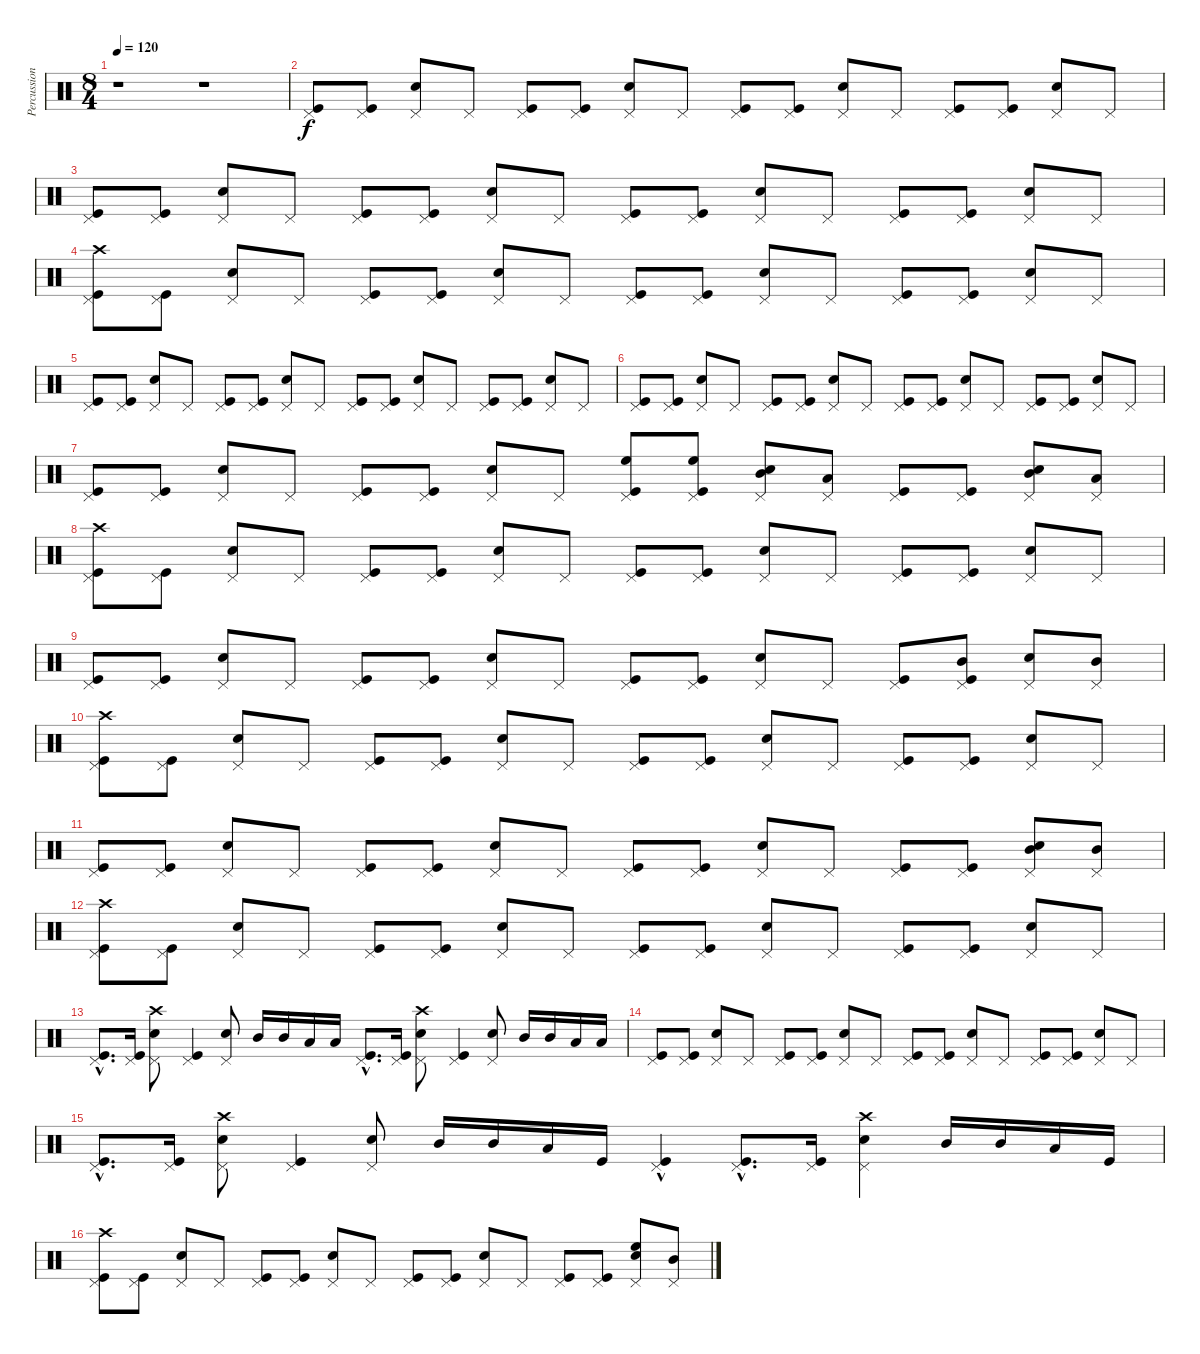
\track ("Percussion" "Percussion") {instrument percussion}
\staff {score}
\articulation defaults
\ts (8 4)
\tempo 120
\clef neutral
\ks c
r.1{dy f} r.1 |
("Kick (hit)" "Pedal Hi-Hat (hit)").8 ("Kick (hit)" "Pedal Hi-Hat (hit)").8 ("Electric Snare (hit)" "Pedal Hi-Hat (hit)").8 "Pedal Hi-Hat (hit)".8 ("Pedal Hi-Hat (hit)" "Kick (hit)").8 ("Pedal Hi-Hat (hit)" "Kick (hit)").8 ("Pedal Hi-Hat (hit)" "Electric Snare (hit)").8 "Pedal Hi-Hat (hit)".8 ("Pedal Hi-Hat (hit)" "Kick (hit)").8 ("Pedal Hi-Hat (hit)" "Kick (hit)").8 ("Pedal Hi-Hat (hit)" "Electric Snare (hit)").8 "Pedal Hi-Hat (hit)".8 ("Pedal Hi-Hat (hit)" "Kick (hit)").8 ("Pedal Hi-Hat (hit)" "Kick (hit)").8 ("Pedal Hi-Hat (hit)" "Electric Snare (hit)").8 "Pedal Hi-Hat (hit)".8 |
("Pedal Hi-Hat (hit)" "Kick (hit)").8 ("Pedal Hi-Hat (hit)" "Kick (hit)").8 ("Pedal Hi-Hat (hit)" "Electric Snare (hit)").8 "Pedal Hi-Hat (hit)".8 ("Pedal Hi-Hat (hit)" "Kick (hit)").8 ("Pedal Hi-Hat (hit)" "Kick (hit)").8 ("Pedal Hi-Hat (hit)" "Electric Snare (hit)").8 "Pedal Hi-Hat (hit)".8 ("Pedal Hi-Hat (hit)" "Kick (hit)").8 ("Pedal Hi-Hat (hit)" "Kick (hit)").8 ("Pedal Hi-Hat (hit)" "Electric Snare (hit)").8 "Pedal Hi-Hat (hit)".8 ("Pedal Hi-Hat (hit)" "Kick (hit)").8 ("Pedal Hi-Hat (hit)" "Kick (hit)").8 ("Pedal Hi-Hat (hit)" "Electric Snare (hit)").8 "Pedal Hi-Hat (hit)".8 |
("Pedal Hi-Hat (hit)" "Kick (hit)" "Crash high (hit)").8 ("Pedal Hi-Hat (hit)" "Kick (hit)").8 ("Pedal Hi-Hat (hit)" "Electric Snare (hit)").8 "Pedal Hi-Hat (hit)".8 ("Pedal Hi-Hat (hit)" "Kick (hit)").8 ("Pedal Hi-Hat (hit)" "Kick (hit)").8 ("Pedal Hi-Hat (hit)" "Electric Snare (hit)").8 "Pedal Hi-Hat (hit)".8 ("Pedal Hi-Hat (hit)" "Kick (hit)").8 ("Pedal Hi-Hat (hit)" "Kick (hit)").8 ("Pedal Hi-Hat (hit)" "Electric Snare (hit)").8 "Pedal Hi-Hat (hit)".8 ("Pedal Hi-Hat (hit)" "Kick (hit)").8 ("Pedal Hi-Hat (hit)" "Kick (hit)").8 ("Pedal Hi-Hat (hit)" "Electric Snare (hit)").8 "Pedal Hi-Hat (hit)".8 |
("Pedal Hi-Hat (hit)" "Kick (hit)").8 ("Pedal Hi-Hat (hit)" "Kick (hit)").8 ("Pedal Hi-Hat (hit)" "Electric Snare (hit)").8 "Pedal Hi-Hat (hit)".8 ("Pedal Hi-Hat (hit)" "Kick (hit)").8 ("Pedal Hi-Hat (hit)" "Kick (hit)").8 ("Pedal Hi-Hat (hit)" "Electric Snare (hit)").8 "Pedal Hi-Hat (hit)".8 ("Pedal Hi-Hat (hit)" "Kick (hit)").8 ("Pedal Hi-Hat (hit)" "Kick (hit)").8 ("Pedal Hi-Hat (hit)" "Electric Snare (hit)").8 "Pedal Hi-Hat (hit)".8 ("Pedal Hi-Hat (hit)" "Kick (hit)").8 ("Pedal Hi-Hat (hit)" "Kick (hit)").8 ("Pedal Hi-Hat (hit)" "Electric Snare (hit)").8 "Pedal Hi-Hat (hit)".8 |
("Pedal Hi-Hat (hit)" "Kick (hit)").8 ("Pedal Hi-Hat (hit)" "Kick (hit)").8 ("Pedal Hi-Hat (hit)" "Electric Snare (hit)").8 "Pedal Hi-Hat (hit)".8 ("Pedal Hi-Hat (hit)" "Kick (hit)").8 ("Pedal Hi-Hat (hit)" "Kick (hit)").8 ("Pedal Hi-Hat (hit)" "Electric Snare (hit)").8 "Pedal Hi-Hat (hit)".8 ("Pedal Hi-Hat (hit)" "Kick (hit)").8 ("Pedal Hi-Hat (hit)" "Kick (hit)").8 ("Pedal Hi-Hat (hit)" "Electric Snare (hit)").8 "Pedal Hi-Hat (hit)".8 ("Pedal Hi-Hat (hit)" "Kick (hit)").8 ("Pedal Hi-Hat (hit)" "Kick (hit)").8 ("Pedal Hi-Hat (hit)" "Electric Snare (hit)").8 "Pedal Hi-Hat (hit)".8 |
("Pedal Hi-Hat (hit)" "Kick (hit)").8 ("Pedal Hi-Hat (hit)" "Kick (hit)").8 ("Pedal Hi-Hat (hit)" "Electric Snare (hit)").8 "Pedal Hi-Hat (hit)".8 ("Pedal Hi-Hat (hit)" "Kick (hit)").8 ("Pedal Hi-Hat (hit)" "Kick (hit)").8 ("Pedal Hi-Hat (hit)" "Electric Snare (hit)").8 "Pedal Hi-Hat (hit)".8 ("Pedal Hi-Hat (hit)" "High Floor Tom (hit)" "Kick (hit)").8 ("Pedal Hi-Hat (hit)" "High Floor Tom (hit)" "Kick (hit)").8 ("Pedal Hi-Hat (hit)" "Electric Snare (hit)" "Mid Tom (hit)").8 ("Pedal Hi-Hat (hit)" "Low Tom (hit)").8 ("Pedal Hi-Hat (hit)" "Kick (hit)").8 ("Pedal Hi-Hat (hit)" "Kick (hit)").8 ("Pedal Hi-Hat (hit)" "Mid Tom (hit)" "Electric Snare (hit)").8 ("Pedal Hi-Hat (hit)" "Low Tom (hit)").8 |
("Pedal Hi-Hat (hit)" "Crash high (hit)" "Kick (hit)").8 ("Pedal Hi-Hat (hit)" "Kick (hit)").8 ("Pedal Hi-Hat (hit)" "Electric Snare (hit)").8 "Pedal Hi-Hat (hit)".8 ("Pedal Hi-Hat (hit)" "Kick (hit)").8 ("Pedal Hi-Hat (hit)" "Kick (hit)").8 ("Pedal Hi-Hat (hit)" "Electric Snare (hit)").8 "Pedal Hi-Hat (hit)".8 ("Pedal Hi-Hat (hit)" "Kick (hit)").8 ("Pedal Hi-Hat (hit)" "Kick (hit)").8 ("Pedal Hi-Hat (hit)" "Electric Snare (hit)").8 "Pedal Hi-Hat (hit)".8 ("Pedal Hi-Hat (hit)" "Kick (hit)").8 ("Pedal Hi-Hat (hit)" "Kick (hit)").8 ("Pedal Hi-Hat (hit)" "Electric Snare (hit)").8 "Pedal Hi-Hat (hit)".8 |
("Pedal Hi-Hat (hit)" "Kick (hit)").8 ("Pedal Hi-Hat (hit)" "Kick (hit)").8 ("Pedal Hi-Hat (hit)" "Electric Snare (hit)").8 "Pedal Hi-Hat (hit)".8 ("Pedal Hi-Hat (hit)" "Kick (hit)").8 ("Pedal Hi-Hat (hit)" "Kick (hit)").8 ("Pedal Hi-Hat (hit)" "Electric Snare (hit)").8 "Pedal Hi-Hat (hit)".8 ("Pedal Hi-Hat (hit)" "Kick (hit)").8 ("Pedal Hi-Hat (hit)" "Kick (hit)").8 ("Pedal Hi-Hat (hit)" "Electric Snare (hit)").8 "Pedal Hi-Hat (hit)".8 ("Pedal Hi-Hat (hit)" "Kick (hit)").8 ("Pedal Hi-Hat (hit)" "Kick (hit)" "Mid Tom (hit)").8 ("Pedal Hi-Hat (hit)" "Electric Snare (hit)").8 ("Pedal Hi-Hat (hit)" "Mid Tom (hit)").8 |
("Pedal Hi-Hat (hit)" "Crash high (hit)" "Kick (hit)").8 ("Pedal Hi-Hat (hit)" "Kick (hit)").8 ("Pedal Hi-Hat (hit)" "Electric Snare (hit)").8 "Pedal Hi-Hat (hit)".8 ("Pedal Hi-Hat (hit)" "Kick (hit)").8 ("Pedal Hi-Hat (hit)" "Kick (hit)").8 ("Pedal Hi-Hat (hit)" "Electric Snare (hit)").8 "Pedal Hi-Hat (hit)".8 ("Pedal Hi-Hat (hit)" "Kick (hit)").8 ("Pedal Hi-Hat (hit)" "Kick (hit)").8 ("Pedal Hi-Hat (hit)" "Electric Snare (hit)").8 "Pedal Hi-Hat (hit)".8 ("Pedal Hi-Hat (hit)" "Kick (hit)").8 ("Pedal Hi-Hat (hit)" "Kick (hit)").8 ("Pedal Hi-Hat (hit)" "Electric Snare (hit)").8 "Pedal Hi-Hat (hit)".8 |
("Pedal Hi-Hat (hit)" "Kick (hit)").8 ("Pedal Hi-Hat (hit)" "Kick (hit)").8 ("Pedal Hi-Hat (hit)" "Electric Snare (hit)").8 "Pedal Hi-Hat (hit)".8 ("Pedal Hi-Hat (hit)" "Kick (hit)").8 ("Pedal Hi-Hat (hit)" "Kick (hit)").8 ("Pedal Hi-Hat (hit)" "Electric Snare (hit)").8 "Pedal Hi-Hat (hit)".8 ("Pedal Hi-Hat (hit)" "Kick (hit)").8 ("Pedal Hi-Hat (hit)" "Kick (hit)").8 ("Pedal Hi-Hat (hit)" "Electric Snare (hit)").8 "Pedal Hi-Hat (hit)".8 ("Pedal Hi-Hat (hit)" "Kick (hit)").8 ("Pedal Hi-Hat (hit)" "Kick (hit)").8 ("Mid Tom (hit)" "Pedal Hi-Hat (hit)" "Electric Snare (hit)").8 ("Mid Tom (hit)" "Pedal Hi-Hat (hit)").8 |
("Pedal Hi-Hat (hit)" "Crash high (hit)" "Kick (hit)").8 ("Pedal Hi-Hat (hit)" "Kick (hit)").8 ("Electric Snare (hit)" "Pedal Hi-Hat (hit)").8 "Pedal Hi-Hat (hit)".8 ("Pedal Hi-Hat (hit)" "Kick (hit)").8 ("Pedal Hi-Hat (hit)" "Kick (hit)").8 ("Electric Snare (hit)" "Pedal Hi-Hat (hit)").8 "Pedal Hi-Hat (hit)".8 ("Pedal Hi-Hat (hit)" "Kick (hit)").8 ("Pedal Hi-Hat (hit)" "Kick (hit)").8 ("Pedal Hi-Hat (hit)" "Electric Snare (hit)").8 "Pedal Hi-Hat (hit)".8 ("Pedal Hi-Hat (hit)" "Kick (hit)").8 ("Pedal Hi-Hat (hit)" "Kick (hit)").8 ("Pedal Hi-Hat (hit)" "Electric Snare (hit)").8 "Pedal Hi-Hat (hit)".8 |
("Pedal Hi-Hat (hit)"{hac} "Kick (hit)"{hac}).8{d} ("Kick (hit)" "Pedal Hi-Hat (hit)").16 ("Pedal Hi-Hat (hit)" "Crash high (hit)" "Electric Snare (hit)").8 ("Kick (hit)" "Pedal Hi-Hat (hit)").4 ("Pedal Hi-Hat (hit)" "Electric Snare (hit)").8 "Mid Tom (hit)".16 "Mid Tom (hit)".16 "Low Tom (hit)".16 "Low Tom (hit)".16 ("Pedal Hi-Hat (hit)"{hac} "Kick (hit)"{hac}).8{d} ("Pedal Hi-Hat (hit)" "Kick (hit)").16 ("Electric Snare (hit)" "Pedal Hi-Hat (hit)" "Crash high (hit)").8 ("Pedal Hi-Hat (hit)" "Kick (hit)").4 ("Electric Snare (hit)" "Pedal Hi-Hat (hit)").8 "Mid Tom (hit)".16 "Mid Tom (hit)".16 "Low Tom (hit)".16 "Low Tom (hit)".16 |
("Pedal Hi-Hat (hit)" "Kick (hit)").8 ("Pedal Hi-Hat (hit)" "Kick (hit)").8 ("Pedal Hi-Hat (hit)" "Electric Snare (hit)").8 "Pedal Hi-Hat (hit)".8 ("Pedal Hi-Hat (hit)" "Kick (hit)").8 ("Pedal Hi-Hat (hit)" "Kick (hit)").8 ("Pedal Hi-Hat (hit)" "Electric Snare (hit)").8 "Pedal Hi-Hat (hit)".8 ("Pedal Hi-Hat (hit)" "Kick (hit)").8 ("Pedal Hi-Hat (hit)" "Kick (hit)").8 ("Pedal Hi-Hat (hit)" "Electric Snare (hit)").8 "Pedal Hi-Hat (hit)".8 ("Pedal Hi-Hat (hit)" "Kick (hit)").8 ("Pedal Hi-Hat (hit)" "Kick (hit)").8 ("Pedal Hi-Hat (hit)" "Electric Snare (hit)").8 "Pedal Hi-Hat (hit)".8 |
("Kick (hit)"{hac} "Pedal Hi-Hat (hit)"{hac}).8{d} ("Pedal Hi-Hat (hit)" "Kick (hit)").16 ("Electric Snare (hit)" "Crash high (hit)" "Pedal Hi-Hat (hit)").8 ("Kick (hit)" "Pedal Hi-Hat (hit)").4 ("Pedal Hi-Hat (hit)" "Electric Snare (hit)").8 "Mid Tom (hit)".16 "Mid Tom (hit)".16 "Low Tom (hit)".16 "Kick (hit)".16 ("Pedal Hi-Hat (hit)"{hac} "Kick (hit)").4 ("Pedal Hi-Hat (hit)"{hac} "Kick (hit)"{hac}).8{d} ("Pedal Hi-Hat (hit)" "Kick (hit)").16 ("Crash high (hit)" "Pedal Hi-Hat (hit)" "Electric Snare (hit)").4 "Mid Tom (hit)".16 "Mid Tom (hit)".16 "Low Tom (hit)".16 "Kick (hit)".16 |
("Pedal Hi-Hat (hit)" "Crash high (hit)" "Kick (hit)").8 ("Pedal Hi-Hat (hit)" "Kick (hit)").8 ("Pedal Hi-Hat (hit)" "Electric Snare (hit)").8 "Pedal Hi-Hat (hit)".8 ("Pedal Hi-Hat (hit)" "Kick (hit)").8 ("Pedal Hi-Hat (hit)" "Kick (hit)").8 ("Pedal Hi-Hat (hit)" "Electric Snare (hit)").8 "Pedal Hi-Hat (hit)".8 ("Pedal Hi-Hat (hit)" "Kick (hit)").8 ("Pedal Hi-Hat (hit)" "Kick (hit)").8 ("Pedal Hi-Hat (hit)" "Electric Snare (hit)").8 "Pedal Hi-Hat (hit)".8 ("Pedal Hi-Hat (hit)" "Kick (hit)").8 ("Pedal Hi-Hat (hit)" "Kick (hit)").8 ("Pedal Hi-Hat (hit)" "High Floor Tom (hit)" "Electric Snare (hit)").8 ("Pedal Hi-Hat (hit)" "Mid Tom (hit)").8
